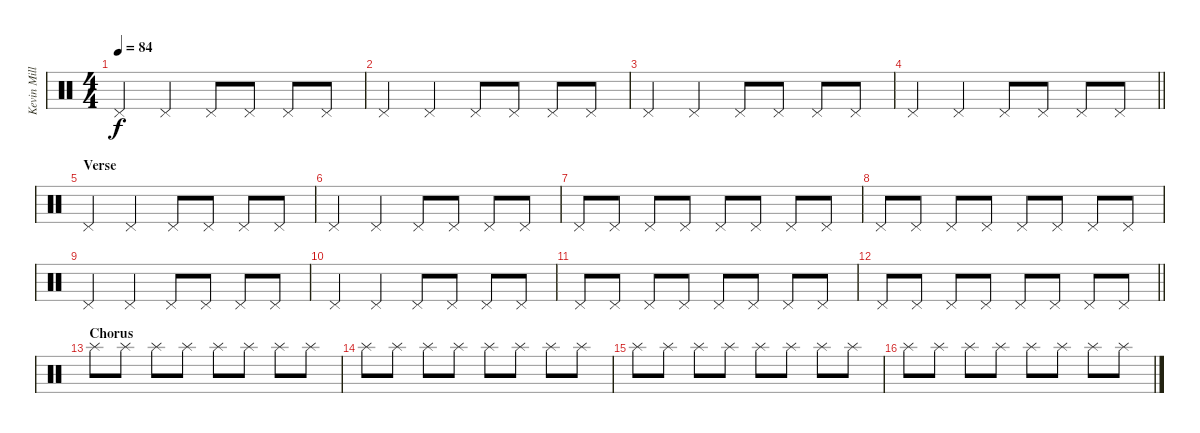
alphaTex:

\track ("Kevin Miller (Drums)" "Kevin Mill") {instrument percussion}
\staff {score}
\articulation defaults
\ts (4 4)
\section ("" "")
\tempo 84
\clef neutral
\ks c "Pedal Hi-Hat (hit)".4{dy f} "Pedal Hi-Hat (hit)".4 "Pedal Hi-Hat (hit)".8 "Pedal Hi-Hat (hit)".8 "Pedal Hi-Hat (hit)".8 "Pedal Hi-Hat (hit)".8
|
"Pedal Hi-Hat (hit)".4 "Pedal Hi-Hat (hit)".4 "Pedal Hi-Hat (hit)".8 "Pedal Hi-Hat (hit)".8 "Pedal Hi-Hat (hit)".8 "Pedal Hi-Hat (hit)".8 |
"Pedal Hi-Hat (hit)".4 "Pedal Hi-Hat (hit)".4 "Pedal Hi-Hat (hit)".8 "Pedal Hi-Hat (hit)".8 "Pedal Hi-Hat (hit)".8 "Pedal Hi-Hat (hit)".8 |
\barLineRight lightlight "Pedal Hi-Hat (hit)".4 "Pedal Hi-Hat (hit)".4 "Pedal Hi-Hat (hit)".8 "Pedal Hi-Hat (hit)".8 "Pedal Hi-Hat (hit)".8 "Pedal Hi-Hat (hit)".8
|
\section ("" "Verse")
"Pedal Hi-Hat (hit)".4 "Pedal Hi-Hat (hit)".4 "Pedal Hi-Hat (hit)".8 "Pedal Hi-Hat (hit)".8 "Pedal Hi-Hat (hit)".8 "Pedal Hi-Hat (hit)".8 |
"Pedal Hi-Hat (hit)".4 "Pedal Hi-Hat (hit)".4 "Pedal Hi-Hat (hit)".8 "Pedal Hi-Hat (hit)".8 "Pedal Hi-Hat (hit)".8 "Pedal Hi-Hat (hit)".8 |
"Pedal Hi-Hat (hit)".8 "Pedal Hi-Hat (hit)".8 "Pedal Hi-Hat (hit)".8 "Pedal Hi-Hat (hit)".8 "Pedal Hi-Hat (hit)".8 "Pedal Hi-Hat (hit)".8 "Pedal Hi-Hat (hit)".8 "Pedal Hi-Hat (hit)".8 |
"Pedal Hi-Hat (hit)".8 "Pedal Hi-Hat (hit)".8 "Pedal Hi-Hat (hit)".8 "Pedal Hi-Hat (hit)".8 "Pedal Hi-Hat (hit)".8 "Pedal Hi-Hat (hit)".8 "Pedal Hi-Hat (hit)".8 "Pedal Hi-Hat (hit)".8 |
"Pedal Hi-Hat (hit)".4 "Pedal Hi-Hat (hit)".4 "Pedal Hi-Hat (hit)".8 "Pedal Hi-Hat (hit)".8 "Pedal Hi-Hat (hit)".8 "Pedal Hi-Hat (hit)".8 |
"Pedal Hi-Hat (hit)".4 "Pedal Hi-Hat (hit)".4 "Pedal Hi-Hat (hit)".8 "Pedal Hi-Hat (hit)".8 "Pedal Hi-Hat (hit)".8 "Pedal Hi-Hat (hit)".8 |
"Pedal Hi-Hat (hit)".8 "Pedal Hi-Hat (hit)".8 "Pedal Hi-Hat (hit)".8 "Pedal Hi-Hat (hit)".8 "Pedal Hi-Hat (hit)".8 "Pedal Hi-Hat (hit)".8 "Pedal Hi-Hat (hit)".8 "Pedal Hi-Hat (hit)".8 |
\barLineRight lightlight "Pedal Hi-Hat (hit)".8 "Pedal Hi-Hat (hit)".8 "Pedal Hi-Hat (hit)".8 "Pedal Hi-Hat (hit)".8 "Pedal Hi-Hat (hit)".8 "Pedal Hi-Hat (hit)".8 "Pedal Hi-Hat (hit)".8 "Pedal Hi-Hat (hit)".8
|
\section ("" "Chorus")
"Splash (hit)".8 "Splash (hit)".8 "Splash (hit)".8 "Splash (hit)".8 "Splash (hit)".8 "Splash (hit)".8 "Splash (hit)".8 "Splash (hit)".8 |
"Splash (hit)".8 "Splash (hit)".8 "Splash (hit)".8 "Splash (hit)".8 "Splash (hit)".8 "Splash (hit)".8 "Splash (hit)".8 "Splash (hit)".8 |
"Splash (hit)".8 "Splash (hit)".8 "Splash (hit)".8 "Splash (hit)".8 "Splash (hit)".8 "Splash (hit)".8 "Splash (hit)".8 "Splash (hit)".8 |
"Splash (hit)".8 "Splash (hit)".8 "Splash (hit)".8 "Splash (hit)".8 "Splash (hit)".8 "Splash (hit)".8 "Splash (hit)".8 "Splash (hit)".8
